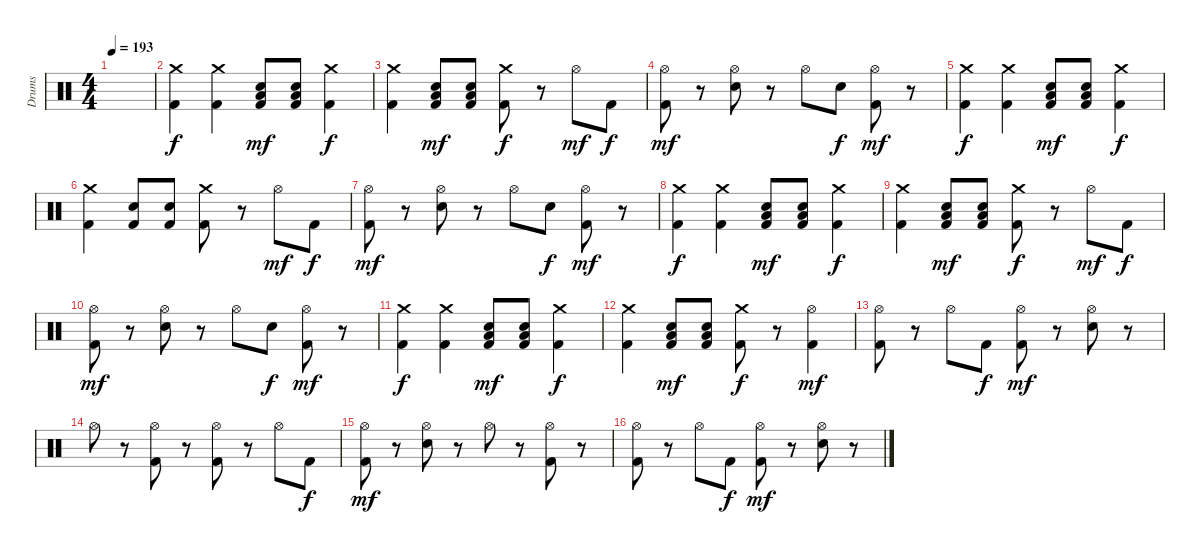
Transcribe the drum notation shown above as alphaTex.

\track ("Drums" "Drums") {instrument percussion}
\staff {score}
\articulation defaults
\ts (4 4)
\tempo 193
\clef neutral
\ks c
|
("Crash medium (hit)" "Kick (hit) 2").4 ("Crash medium (hit)" "Kick (hit) 2").4 ("Low Floor Tom (hit)" "Snare (hit) 2" "Kick (hit) 2").8{dy mf} ("Low Floor Tom (hit)" "Snare (hit) 2" "Kick (hit) 2").8 ("Crash medium (hit)" "Kick (hit) 2").4{dy f} |
("Crash medium (hit)" "Kick (hit) 2").4 ("Low Floor Tom (hit)" "Snare (hit) 2" "Kick (hit) 2").8{dy mf} ("Low Floor Tom (hit)" "Snare (hit) 2" "Kick (hit) 2").8 ("Crash medium (hit)" "Kick (hit) 2").8{dy f} r.8 "Hi-Hat (open)".8{dy mf} "Kick (hit) 2".8{dy f} |
("Hi-Hat (open)" "Kick (hit) 2").8{dy mf} r.8 ("Hi-Hat (open)" "Snare (hit) 2").8 r.8 "Hi-Hat (open)".8 "Snare (hit) 2".8{dy f} ("Hi-Hat (open)" "Kick (hit) 2").8{dy mf} r.8 |
("Crash medium (hit)" "Kick (hit) 2").4{dy f} ("Crash medium (hit)" "Kick (hit) 2").4 ("Low Floor Tom (hit)" "Snare (hit) 2" "Kick (hit) 2").8{dy mf} ("Low Floor Tom (hit)" "Snare (hit) 2" "Kick (hit) 2").8 ("Crash medium (hit)" "Kick (hit) 2").4{dy f} |
("Crash medium (hit)" "Kick (hit) 2").4 ("Snare (hit) 2" "Kick (hit) 2").8 ("Snare (hit) 2" "Kick (hit) 2").8 ("Crash medium (hit)" "Kick (hit) 2").8 r.8 "Hi-Hat (open)".8{dy mf} "Kick (hit) 2".8{dy f} |
("Hi-Hat (open)" "Kick (hit) 2").8{dy mf} r.8 ("Hi-Hat (open)" "Snare (hit) 2").8 r.8 "Hi-Hat (open)".8 "Snare (hit) 2".8{dy f} ("Hi-Hat (open)" "Kick (hit) 2").8{dy mf} r.8 |
("Crash medium (hit)" "Kick (hit) 2").4{dy f} ("Crash medium (hit)" "Kick (hit) 2").4 ("Low Floor Tom (hit)" "Snare (hit) 2" "Kick (hit) 2").8{dy mf} ("Low Floor Tom (hit)" "Snare (hit) 2" "Kick (hit) 2").8 ("Crash medium (hit)" "Kick (hit) 2").4{dy f} |
("Crash medium (hit)" "Kick (hit) 2").4 ("Low Floor Tom (hit)" "Snare (hit) 2" "Kick (hit) 2").8{dy mf} ("Low Floor Tom (hit)" "Snare (hit) 2" "Kick (hit) 2").8 ("Crash medium (hit)" "Kick (hit) 2").8{dy f} r.8 "Hi-Hat (open)".8{dy mf} "Kick (hit) 2".8{dy f} |
("Hi-Hat (open)" "Kick (hit) 2").8{dy mf} r.8 ("Hi-Hat (open)" "Snare (hit) 2").8 r.8 "Hi-Hat (open)".8 "Snare (hit) 2".8{dy f} ("Hi-Hat (open)" "Kick (hit) 2").8{dy mf} r.8 |
("Crash medium (hit)" "Kick (hit) 2").4{dy f} ("Crash medium (hit)" "Kick (hit) 2").4 ("Low Floor Tom (hit)" "Snare (hit) 2" "Kick (hit) 2").8{dy mf} ("Low Floor Tom (hit)" "Snare (hit) 2" "Kick (hit) 2").8 ("Crash medium (hit)" "Kick (hit) 2").4{dy f} |
("Crash medium (hit)" "Kick (hit) 2").4 ("Low Floor Tom (hit)" "Snare (hit) 2" "Kick (hit) 2").8{dy mf} ("Low Floor Tom (hit)" "Snare (hit) 2" "Kick (hit) 2").8 ("Crash medium (hit)" "Kick (hit) 2").8{dy f} r.8 ("Hi-Hat (open)" "Kick (hit) 2").4{dy mf} |
("Hi-Hat (open)" "Kick (hit) 2").8 r.8 "Hi-Hat (open)".8 "Kick (hit) 2".8{dy f} ("Hi-Hat (open)" "Kick (hit) 2").8{dy mf} r.8 ("Hi-Hat (open)" "Snare (hit) 2").8 r.8 |
"Hi-Hat (open)".8 r.8 ("Hi-Hat (open)" "Kick (hit) 2").8 r.8 ("Hi-Hat (open)" "Kick (hit) 2").8 r.8 "Hi-Hat (open)".8 "Kick (hit) 2".8{dy f} |
("Hi-Hat (open)" "Kick (hit) 2").8{dy mf} r.8 ("Hi-Hat (open)" "Snare (hit) 2").8 r.8 "Hi-Hat (open)".8 r.8 ("Hi-Hat (open)" "Kick (hit) 2").8 r.8 |
("Hi-Hat (open)" "Kick (hit) 2").8 r.8 "Hi-Hat (open)".8 "Kick (hit) 2".8{dy f} ("Hi-Hat (open)" "Kick (hit) 2").8{dy mf} r.8 ("Hi-Hat (open)" "Snare (hit) 2").8 r.8
